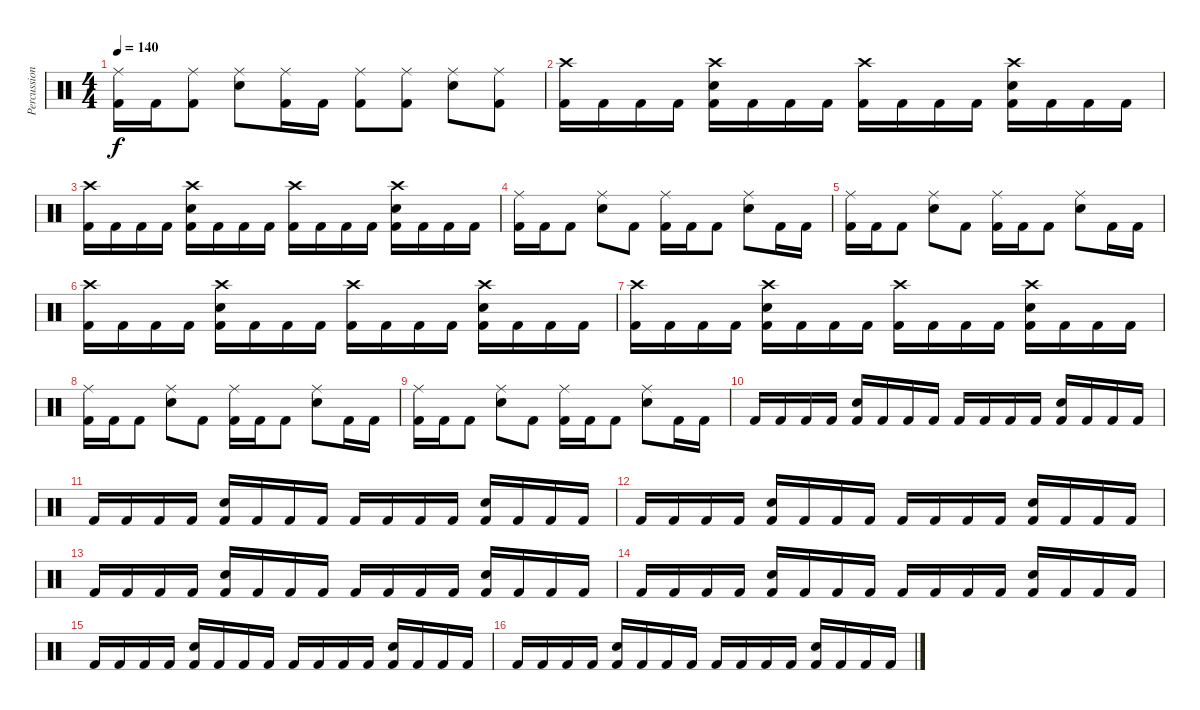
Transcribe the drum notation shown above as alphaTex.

\track ("Percussions" "Percussion") {instrument percussion}
\staff {score}
\articulation defaults
\ts (4 4)
\tempo 140
\clef neutral
\ks c
("Ride (middle)" "Kick (hit) 2").16{dy f} "Kick (hit) 2".16 ("Ride (middle)" "Kick (hit) 2").8 ("Ride (middle)" "Electric Snare (hit)").8 ("Ride (middle)" "Kick (hit) 2").16 "Kick (hit) 2".16 ("Ride (middle)" "Kick (hit) 2").8 ("Ride (middle)" "Kick (hit) 2").8 ("Ride (middle)" "Electric Snare (hit)").8 ("Ride (middle)" "Kick (hit) 2").8 |
("Crash high (hit)" "Kick (hit) 2").16 "Kick (hit) 2".16 "Kick (hit) 2".16 "Kick (hit) 2".16 ("Crash high (hit)" "Electric Snare (hit)" "Kick (hit) 2").16 "Kick (hit) 2".16 "Kick (hit) 2".16 "Kick (hit) 2".16 ("Crash high (hit)" "Kick (hit) 2").16 "Kick (hit) 2".16 "Kick (hit) 2".16 "Kick (hit) 2".16 ("Crash high (hit)" "Electric Snare (hit)" "Kick (hit) 2").16 "Kick (hit) 2".16 "Kick (hit) 2".16 "Kick (hit) 2".16 |
("Crash high (hit)" "Kick (hit) 2").16 "Kick (hit) 2".16 "Kick (hit) 2".16 "Kick (hit) 2".16 ("Crash high (hit)" "Electric Snare (hit)" "Kick (hit) 2").16 "Kick (hit) 2".16 "Kick (hit) 2".16 "Kick (hit) 2".16 ("Crash high (hit)" "Kick (hit) 2").16 "Kick (hit) 2".16 "Kick (hit) 2".16 "Kick (hit) 2".16 ("Crash high (hit)" "Electric Snare (hit)" "Kick (hit) 2").16 "Kick (hit) 2".16 "Kick (hit) 2".16 "Kick (hit) 2".16 |
("Ride (middle)" "Kick (hit) 2").16 "Kick (hit) 2".16 "Kick (hit) 2".8 ("Ride (middle)" "Electric Snare (hit)").8 "Kick (hit) 2".8 ("Ride (middle)" "Kick (hit) 2").16 "Kick (hit) 2".16 "Kick (hit) 2".8 ("Ride (middle)" "Electric Snare (hit)").8 "Kick (hit) 2".16 "Kick (hit) 2".16 |
("Ride (middle)" "Kick (hit) 2").16 "Kick (hit) 2".16 "Kick (hit) 2".8 ("Ride (middle)" "Electric Snare (hit)").8 "Kick (hit) 2".8 ("Ride (middle)" "Kick (hit) 2").16 "Kick (hit) 2".16 "Kick (hit) 2".8 ("Ride (middle)" "Electric Snare (hit)").8 "Kick (hit) 2".16 "Kick (hit) 2".16 |
("Crash high (hit)" "Kick (hit) 2").16 "Kick (hit) 2".16 "Kick (hit) 2".16 "Kick (hit) 2".16 ("Crash high (hit)" "Electric Snare (hit)" "Kick (hit) 2").16 "Kick (hit) 2".16 "Kick (hit) 2".16 "Kick (hit) 2".16 ("Crash high (hit)" "Kick (hit) 2").16 "Kick (hit) 2".16 "Kick (hit) 2".16 "Kick (hit) 2".16 ("Crash high (hit)" "Electric Snare (hit)" "Kick (hit) 2").16 "Kick (hit) 2".16 "Kick (hit) 2".16 "Kick (hit) 2".16 |
("Crash high (hit)" "Kick (hit) 2").16 "Kick (hit) 2".16 "Kick (hit) 2".16 "Kick (hit) 2".16 ("Crash high (hit)" "Electric Snare (hit)" "Kick (hit) 2").16 "Kick (hit) 2".16 "Kick (hit) 2".16 "Kick (hit) 2".16 ("Crash high (hit)" "Kick (hit) 2").16 "Kick (hit) 2".16 "Kick (hit) 2".16 "Kick (hit) 2".16 ("Crash high (hit)" "Electric Snare (hit)" "Kick (hit) 2").16 "Kick (hit) 2".16 "Kick (hit) 2".16 "Kick (hit) 2".16 |
("Ride (middle)" "Kick (hit) 2").16 "Kick (hit) 2".16 "Kick (hit) 2".8 ("Ride (middle)" "Electric Snare (hit)").8 "Kick (hit) 2".8 ("Ride (middle)" "Kick (hit) 2").16 "Kick (hit) 2".16 "Kick (hit) 2".8 ("Ride (middle)" "Electric Snare (hit)").8 "Kick (hit) 2".16 "Kick (hit) 2".16 |
("Ride (middle)" "Kick (hit) 2").16 "Kick (hit) 2".16 "Kick (hit) 2".8 ("Ride (middle)" "Electric Snare (hit)").8 "Kick (hit) 2".8 ("Ride (middle)" "Kick (hit) 2").16 "Kick (hit) 2".16 "Kick (hit) 2".8 ("Ride (middle)" "Electric Snare (hit)").8 "Kick (hit) 2".16 "Kick (hit) 2".16 |
"Kick (hit) 2".16 "Kick (hit) 2".16 "Kick (hit) 2".16 "Kick (hit) 2".16 ("Electric Snare (hit)" "Kick (hit) 2").16 "Kick (hit) 2".16 "Kick (hit) 2".16 "Kick (hit) 2".16 "Kick (hit) 2".16 "Kick (hit) 2".16 "Kick (hit) 2".16 "Kick (hit) 2".16 ("Electric Snare (hit)" "Kick (hit) 2").16 "Kick (hit) 2".16 "Kick (hit) 2".16 "Kick (hit) 2".16 |
"Kick (hit) 2".16 "Kick (hit) 2".16 "Kick (hit) 2".16 "Kick (hit) 2".16 ("Electric Snare (hit)" "Kick (hit) 2").16 "Kick (hit) 2".16 "Kick (hit) 2".16 "Kick (hit) 2".16 "Kick (hit) 2".16 "Kick (hit) 2".16 "Kick (hit) 2".16 "Kick (hit) 2".16 ("Electric Snare (hit)" "Kick (hit) 2").16 "Kick (hit) 2".16 "Kick (hit) 2".16 "Kick (hit) 2".16 |
"Kick (hit) 2".16 "Kick (hit) 2".16 "Kick (hit) 2".16 "Kick (hit) 2".16 ("Electric Snare (hit)" "Kick (hit) 2").16 "Kick (hit) 2".16 "Kick (hit) 2".16 "Kick (hit) 2".16 "Kick (hit) 2".16 "Kick (hit) 2".16 "Kick (hit) 2".16 "Kick (hit) 2".16 ("Electric Snare (hit)" "Kick (hit) 2").16 "Kick (hit) 2".16 "Kick (hit) 2".16 "Kick (hit) 2".16 |
"Kick (hit) 2".16 "Kick (hit) 2".16 "Kick (hit) 2".16 "Kick (hit) 2".16 ("Electric Snare (hit)" "Kick (hit) 2").16 "Kick (hit) 2".16 "Kick (hit) 2".16 "Kick (hit) 2".16 "Kick (hit) 2".16 "Kick (hit) 2".16 "Kick (hit) 2".16 "Kick (hit) 2".16 ("Electric Snare (hit)" "Kick (hit) 2").16 "Kick (hit) 2".16 "Kick (hit) 2".16 "Kick (hit) 2".16 |
"Kick (hit) 2".16 "Kick (hit) 2".16 "Kick (hit) 2".16 "Kick (hit) 2".16 ("Electric Snare (hit)" "Kick (hit) 2").16 "Kick (hit) 2".16 "Kick (hit) 2".16 "Kick (hit) 2".16 "Kick (hit) 2".16 "Kick (hit) 2".16 "Kick (hit) 2".16 "Kick (hit) 2".16 ("Electric Snare (hit)" "Kick (hit) 2").16 "Kick (hit) 2".16 "Kick (hit) 2".16 "Kick (hit) 2".16 |
"Kick (hit) 2".16 "Kick (hit) 2".16 "Kick (hit) 2".16 "Kick (hit) 2".16 ("Electric Snare (hit)" "Kick (hit) 2").16 "Kick (hit) 2".16 "Kick (hit) 2".16 "Kick (hit) 2".16 "Kick (hit) 2".16 "Kick (hit) 2".16 "Kick (hit) 2".16 "Kick (hit) 2".16 ("Electric Snare (hit)" "Kick (hit) 2").16 "Kick (hit) 2".16 "Kick (hit) 2".16 "Kick (hit) 2".16 |
"Kick (hit) 2".16 "Kick (hit) 2".16 "Kick (hit) 2".16 "Kick (hit) 2".16 ("Electric Snare (hit)" "Kick (hit) 2").16 "Kick (hit) 2".16 "Kick (hit) 2".16 "Kick (hit) 2".16 "Kick (hit) 2".16 "Kick (hit) 2".16 "Kick (hit) 2".16 "Kick (hit) 2".16 ("Electric Snare (hit)" "Kick (hit) 2").16 "Kick (hit) 2".16 "Kick (hit) 2".16 "Kick (hit) 2".16
